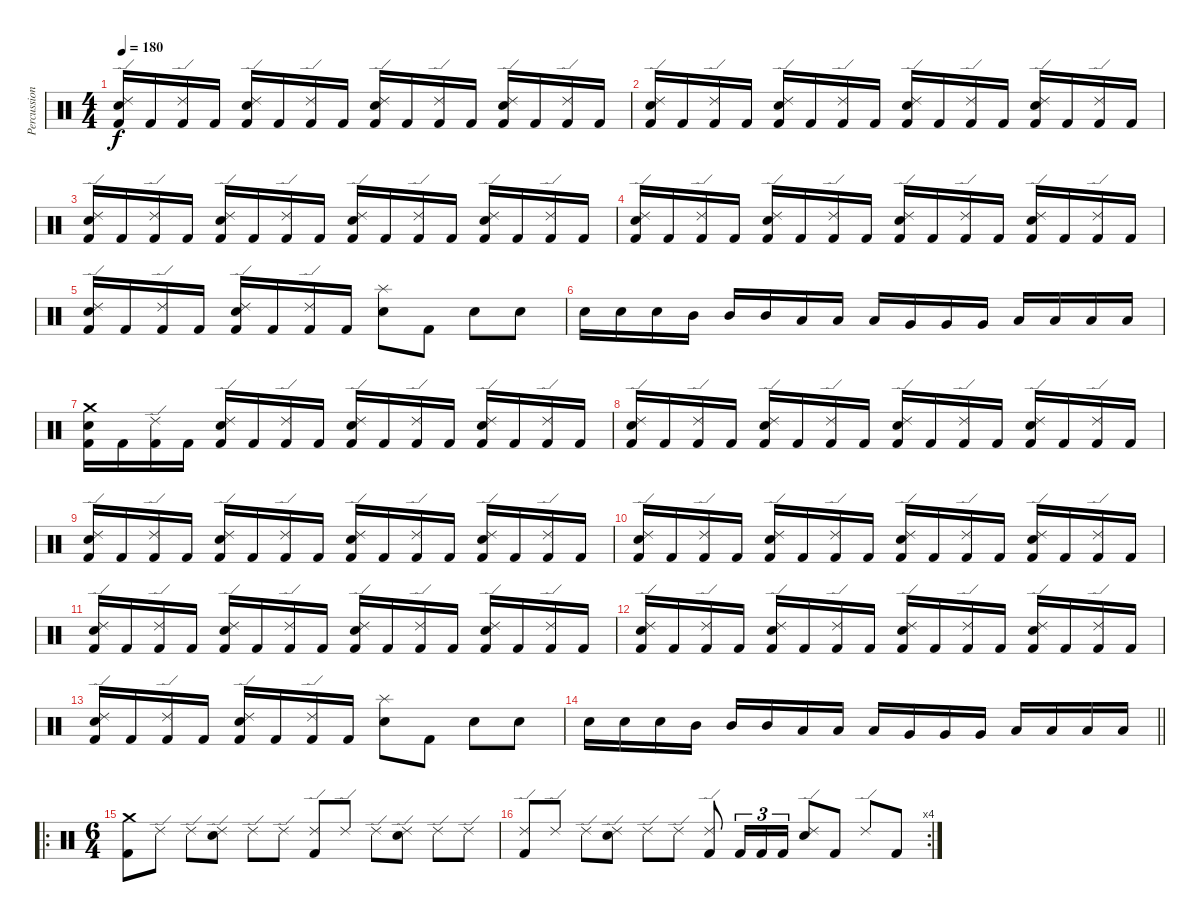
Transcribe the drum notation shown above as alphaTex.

\track ("Percussion" "Percussion") {instrument percussion}
\staff {score}
\articulation defaults
\ts (4 4)
\tempo 180
\clef neutral
\ks c
("Ride (edge) 2" "Electric Snare (hit)" "Kick (hit) 2").16{dy f} "Kick (hit) 2".16 ("Ride (edge) 2" "Kick (hit) 2").16 "Kick (hit) 2".16 ("Ride (edge) 2" "Electric Snare (hit)" "Kick (hit) 2").16 "Kick (hit) 2".16 ("Ride (edge) 2" "Kick (hit) 2").16 "Kick (hit) 2".16 ("Ride (edge) 2" "Electric Snare (hit)" "Kick (hit) 2").16 "Kick (hit) 2".16 ("Ride (edge) 2" "Kick (hit) 2").16 "Kick (hit) 2".16 ("Ride (edge) 2" "Electric Snare (hit)" "Kick (hit) 2").16 "Kick (hit) 2".16 ("Ride (edge) 2" "Kick (hit) 2").16 "Kick (hit) 2".16 |
("Ride (edge) 2" "Electric Snare (hit)" "Kick (hit) 2").16 "Kick (hit) 2".16 ("Ride (edge) 2" "Kick (hit) 2").16 "Kick (hit) 2".16 ("Ride (edge) 2" "Electric Snare (hit)" "Kick (hit) 2").16 "Kick (hit) 2".16 ("Ride (edge) 2" "Kick (hit) 2").16 "Kick (hit) 2".16 ("Ride (edge) 2" "Electric Snare (hit)" "Kick (hit) 2").16 "Kick (hit) 2".16 ("Ride (edge) 2" "Kick (hit) 2").16 "Kick (hit) 2".16 ("Ride (edge) 2" "Electric Snare (hit)" "Kick (hit) 2").16 "Kick (hit) 2".16 ("Ride (edge) 2" "Kick (hit) 2").16 "Kick (hit) 2".16 |
("Ride (edge) 2" "Electric Snare (hit)" "Kick (hit) 2").16 "Kick (hit) 2".16 ("Ride (edge) 2" "Kick (hit) 2").16 "Kick (hit) 2".16 ("Ride (edge) 2" "Electric Snare (hit)" "Kick (hit) 2").16 "Kick (hit) 2".16 ("Ride (edge) 2" "Kick (hit) 2").16 "Kick (hit) 2".16 ("Ride (edge) 2" "Electric Snare (hit)" "Kick (hit) 2").16 "Kick (hit) 2".16 ("Ride (edge) 2" "Kick (hit) 2").16 "Kick (hit) 2".16 ("Ride (edge) 2" "Electric Snare (hit)" "Kick (hit) 2").16 "Kick (hit) 2".16 ("Ride (edge) 2" "Kick (hit) 2").16 "Kick (hit) 2".16 |
("Ride (edge) 2" "Electric Snare (hit)" "Kick (hit) 2").16 "Kick (hit) 2".16 ("Ride (edge) 2" "Kick (hit) 2").16 "Kick (hit) 2".16 ("Ride (edge) 2" "Electric Snare (hit)" "Kick (hit) 2").16 "Kick (hit) 2".16 ("Ride (edge) 2" "Kick (hit) 2").16 "Kick (hit) 2".16 ("Ride (edge) 2" "Electric Snare (hit)" "Kick (hit) 2").16 "Kick (hit) 2".16 ("Ride (edge) 2" "Kick (hit) 2").16 "Kick (hit) 2".16 ("Ride (edge) 2" "Electric Snare (hit)" "Kick (hit) 2").16 "Kick (hit) 2".16 ("Ride (edge) 2" "Kick (hit) 2").16 "Kick (hit) 2".16 |
("Ride (edge) 2" "Electric Snare (hit)" "Kick (hit) 2").16 "Kick (hit) 2".16 ("Ride (edge) 2" "Kick (hit) 2").16 "Kick (hit) 2".16 ("Ride (edge) 2" "Electric Snare (hit)" "Kick (hit) 2").16 "Kick (hit) 2".16 ("Ride (edge) 2" "Kick (hit) 2").16 "Kick (hit) 2".16 ("Splash (hit)" "Electric Snare (hit)").8 "Kick (hit) 2".8 "Electric Snare (hit)".8 "Electric Snare (hit)".8 |
"Electric Snare (hit)".16 "Electric Snare (hit)".16 "Electric Snare (hit)".16 "Mid Tom (hit)".16 "Mid Tom (hit)".16 "Mid Tom (hit)".16 "Low Tom (hit)".16 "Low Tom (hit)".16 "Low Tom (hit)".16 "Very Low Tom (hit)".16 "Very Low Tom (hit)".16 "Very Low Tom (hit)".16 "Low Floor Tom (hit)".16 "Low Floor Tom (hit)".16 "Low Floor Tom (hit)".16 "Low Floor Tom (hit)".16 |
("Crash medium (hit)" "Electric Snare (hit)" "Kick (hit) 2").16 "Kick (hit) 2".16 ("Ride (edge) 2" "Kick (hit) 2").16 "Kick (hit) 2".16 ("Ride (edge) 2" "Electric Snare (hit)" "Kick (hit) 2").16 "Kick (hit) 2".16 ("Ride (edge) 2" "Kick (hit) 2").16 "Kick (hit) 2".16 ("Ride (edge) 2" "Electric Snare (hit)" "Kick (hit) 2").16 "Kick (hit) 2".16 ("Ride (edge) 2" "Kick (hit) 2").16 "Kick (hit) 2".16 ("Ride (edge) 2" "Electric Snare (hit)" "Kick (hit) 2").16 "Kick (hit) 2".16 ("Ride (edge) 2" "Kick (hit) 2").16 "Kick (hit) 2".16 |
("Ride (edge) 2" "Electric Snare (hit)" "Kick (hit) 2").16 "Kick (hit) 2".16 ("Ride (edge) 2" "Kick (hit) 2").16 "Kick (hit) 2".16 ("Ride (edge) 2" "Electric Snare (hit)" "Kick (hit) 2").16 "Kick (hit) 2".16 ("Ride (edge) 2" "Kick (hit) 2").16 "Kick (hit) 2".16 ("Ride (edge) 2" "Electric Snare (hit)" "Kick (hit) 2").16 "Kick (hit) 2".16 ("Ride (edge) 2" "Kick (hit) 2").16 "Kick (hit) 2".16 ("Ride (edge) 2" "Electric Snare (hit)" "Kick (hit) 2").16 "Kick (hit) 2".16 ("Ride (edge) 2" "Kick (hit) 2").16 "Kick (hit) 2".16 |
("Ride (edge) 2" "Electric Snare (hit)" "Kick (hit) 2").16 "Kick (hit) 2".16 ("Ride (edge) 2" "Kick (hit) 2").16 "Kick (hit) 2".16 ("Ride (edge) 2" "Electric Snare (hit)" "Kick (hit) 2").16 "Kick (hit) 2".16 ("Ride (edge) 2" "Kick (hit) 2").16 "Kick (hit) 2".16 ("Ride (edge) 2" "Electric Snare (hit)" "Kick (hit) 2").16 "Kick (hit) 2".16 ("Ride (edge) 2" "Kick (hit) 2").16 "Kick (hit) 2".16 ("Ride (edge) 2" "Electric Snare (hit)" "Kick (hit) 2").16 "Kick (hit) 2".16 ("Ride (edge) 2" "Kick (hit) 2").16 "Kick (hit) 2".16 |
("Ride (edge) 2" "Electric Snare (hit)" "Kick (hit) 2").16 "Kick (hit) 2".16 ("Ride (edge) 2" "Kick (hit) 2").16 "Kick (hit) 2".16 ("Ride (edge) 2" "Electric Snare (hit)" "Kick (hit) 2").16 "Kick (hit) 2".16 ("Ride (edge) 2" "Kick (hit) 2").16 "Kick (hit) 2".16 ("Ride (edge) 2" "Electric Snare (hit)" "Kick (hit) 2").16 "Kick (hit) 2".16 ("Ride (edge) 2" "Kick (hit) 2").16 "Kick (hit) 2".16 ("Ride (edge) 2" "Electric Snare (hit)" "Kick (hit) 2").16 "Kick (hit) 2".16 ("Ride (edge) 2" "Kick (hit) 2").16 "Kick (hit) 2".16 |
("Ride (edge) 2" "Electric Snare (hit)" "Kick (hit) 2").16 "Kick (hit) 2".16 ("Ride (edge) 2" "Kick (hit) 2").16 "Kick (hit) 2".16 ("Ride (edge) 2" "Electric Snare (hit)" "Kick (hit) 2").16 "Kick (hit) 2".16 ("Ride (edge) 2" "Kick (hit) 2").16 "Kick (hit) 2".16 ("Ride (edge) 2" "Electric Snare (hit)" "Kick (hit) 2").16 "Kick (hit) 2".16 ("Ride (edge) 2" "Kick (hit) 2").16 "Kick (hit) 2".16 ("Ride (edge) 2" "Electric Snare (hit)" "Kick (hit) 2").16 "Kick (hit) 2".16 ("Ride (edge) 2" "Kick (hit) 2").16 "Kick (hit) 2".16 |
("Ride (edge) 2" "Electric Snare (hit)" "Kick (hit) 2").16 "Kick (hit) 2".16 ("Ride (edge) 2" "Kick (hit) 2").16 "Kick (hit) 2".16 ("Ride (edge) 2" "Electric Snare (hit)" "Kick (hit) 2").16 "Kick (hit) 2".16 ("Ride (edge) 2" "Kick (hit) 2").16 "Kick (hit) 2".16 ("Ride (edge) 2" "Electric Snare (hit)" "Kick (hit) 2").16 "Kick (hit) 2".16 ("Ride (edge) 2" "Kick (hit) 2").16 "Kick (hit) 2".16 ("Ride (edge) 2" "Electric Snare (hit)" "Kick (hit) 2").16 "Kick (hit) 2".16 ("Ride (edge) 2" "Kick (hit) 2").16 "Kick (hit) 2".16 |
("Ride (edge) 2" "Electric Snare (hit)" "Kick (hit) 2").16 "Kick (hit) 2".16 ("Ride (edge) 2" "Kick (hit) 2").16 "Kick (hit) 2".16 ("Ride (edge) 2" "Electric Snare (hit)" "Kick (hit) 2").16 "Kick (hit) 2".16 ("Ride (edge) 2" "Kick (hit) 2").16 "Kick (hit) 2".16 ("Splash (hit)" "Electric Snare (hit)").8 "Kick (hit) 2".8 "Electric Snare (hit)".8 "Electric Snare (hit)".8 |
\barLineRight lightlight "Electric Snare (hit)".16 "Electric Snare (hit)".16 "Electric Snare (hit)".16 "Mid Tom (hit)".16 "Mid Tom (hit)".16 "Mid Tom (hit)".16 "Low Tom (hit)".16 "Low Tom (hit)".16 "Low Tom (hit)".16 "Very Low Tom (hit)".16 "Very Low Tom (hit)".16 "Very Low Tom (hit)".16 "Low Floor Tom (hit)".16 "Low Floor Tom (hit)".16 "Low Floor Tom (hit)".16 "Low Floor Tom (hit)".16
|
\ro
\ts (6 4)
("Crash medium (hit)" "Kick (hit) 2").8 "Ride (edge) 2".8 "Ride (edge) 2".8 ("Ride (edge) 2" "Electric Snare (hit)").8 "Ride (edge) 2".8 "Ride (edge) 2".8 ("Ride (edge) 2" "Kick (hit) 2").8 "Ride (edge) 2".8 "Ride (edge) 2".8 ("Ride (edge) 2" "Electric Snare (hit)").8 "Ride (edge) 2".8 "Ride (edge) 2".8 |
\rc 4
("Ride (edge) 2" "Kick (hit) 2").8 "Ride (edge) 2".8 "Ride (edge) 2".8 ("Ride (edge) 2" "Electric Snare (hit)").8 "Ride (edge) 2".8 "Ride (edge) 2".8 ("Ride (edge) 2" "Kick (hit) 2").8 "Kick (hit) 2".16{tu (3 2)} "Kick (hit) 2".16{tu (3 2)} "Kick (hit) 2".16{tu (3 2)} ("Ride (edge) 2" "Electric Snare (hit)").8 "Kick (hit) 2".8 "Ride (edge) 2".8 "Kick (hit) 2".8
